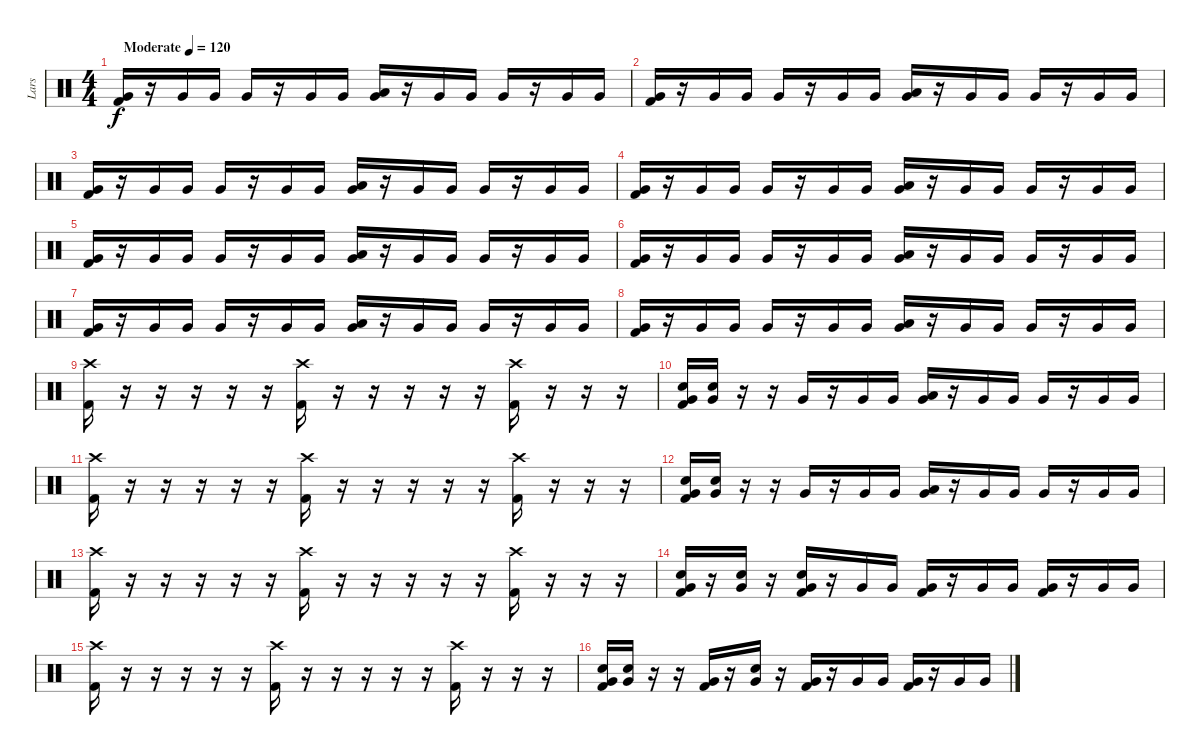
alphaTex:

\track ("Lars" "Lars") {instrument percussion}
\staff {score}
\articulation defaults
\ts (4 4)
\tempo (120 "Moderate")
\clef neutral
\ks c
("Very Low Tom (hit)" "Kick (hit) 2").16{dy f} r.16 "Very Low Tom (hit)".16 "Very Low Tom (hit)".16 "Very Low Tom (hit)".16 r.16 "Very Low Tom (hit)".16 "Very Low Tom (hit)".16 ("Low Tom (hit)" "Very Low Tom (hit)").16 r.16 "Very Low Tom (hit)".16 "Very Low Tom (hit)".16 "Very Low Tom (hit)".16 r.16 "Very Low Tom (hit)".16 "Very Low Tom (hit)".16 |
("Very Low Tom (hit)" "Kick (hit) 2").16 r.16 "Very Low Tom (hit)".16 "Very Low Tom (hit)".16 "Very Low Tom (hit)".16 r.16 "Very Low Tom (hit)".16 "Very Low Tom (hit)".16 ("Low Tom (hit)" "Very Low Tom (hit)").16 r.16 "Very Low Tom (hit)".16 "Very Low Tom (hit)".16 "Very Low Tom (hit)".16 r.16 "Very Low Tom (hit)".16 "Very Low Tom (hit)".16 |
("Very Low Tom (hit)" "Kick (hit) 2").16 r.16 "Very Low Tom (hit)".16 "Very Low Tom (hit)".16 "Very Low Tom (hit)".16 r.16 "Very Low Tom (hit)".16 "Very Low Tom (hit)".16 ("Low Tom (hit)" "Very Low Tom (hit)").16 r.16 "Very Low Tom (hit)".16 "Very Low Tom (hit)".16 "Very Low Tom (hit)".16 r.16 "Very Low Tom (hit)".16 "Very Low Tom (hit)".16 |
("Very Low Tom (hit)" "Kick (hit) 2").16 r.16 "Very Low Tom (hit)".16 "Very Low Tom (hit)".16 "Very Low Tom (hit)".16 r.16 "Very Low Tom (hit)".16 "Very Low Tom (hit)".16 ("Low Tom (hit)" "Very Low Tom (hit)").16 r.16 "Very Low Tom (hit)".16 "Very Low Tom (hit)".16 "Very Low Tom (hit)".16 r.16 "Very Low Tom (hit)".16 "Very Low Tom (hit)".16 |
("Very Low Tom (hit)" "Kick (hit) 2").16 r.16 "Very Low Tom (hit)".16 "Very Low Tom (hit)".16 "Very Low Tom (hit)".16 r.16 "Very Low Tom (hit)".16 "Very Low Tom (hit)".16 ("Low Tom (hit)" "Very Low Tom (hit)").16 r.16 "Very Low Tom (hit)".16 "Very Low Tom (hit)".16 "Very Low Tom (hit)".16 r.16 "Very Low Tom (hit)".16 "Very Low Tom (hit)".16 |
("Very Low Tom (hit)" "Kick (hit) 2").16 r.16 "Very Low Tom (hit)".16 "Very Low Tom (hit)".16 "Very Low Tom (hit)".16 r.16 "Very Low Tom (hit)".16 "Very Low Tom (hit)".16 ("Low Tom (hit)" "Very Low Tom (hit)").16 r.16 "Very Low Tom (hit)".16 "Very Low Tom (hit)".16 "Very Low Tom (hit)".16 r.16 "Very Low Tom (hit)".16 "Very Low Tom (hit)".16 |
("Very Low Tom (hit)" "Kick (hit) 2").16 r.16 "Very Low Tom (hit)".16 "Very Low Tom (hit)".16 "Very Low Tom (hit)".16 r.16 "Very Low Tom (hit)".16 "Very Low Tom (hit)".16 ("Low Tom (hit)" "Very Low Tom (hit)").16 r.16 "Very Low Tom (hit)".16 "Very Low Tom (hit)".16 "Very Low Tom (hit)".16 r.16 "Very Low Tom (hit)".16 "Very Low Tom (hit)".16 |
("Very Low Tom (hit)" "Kick (hit) 2").16 r.16 "Very Low Tom (hit)".16 "Very Low Tom (hit)".16 "Very Low Tom (hit)".16 r.16 "Very Low Tom (hit)".16 "Very Low Tom (hit)".16 ("Low Tom (hit)" "Very Low Tom (hit)").16 r.16 "Very Low Tom (hit)".16 "Very Low Tom (hit)".16 "Very Low Tom (hit)".16 r.16 "Very Low Tom (hit)".16 "Very Low Tom (hit)".16 |
("Crash high (hit)" "Kick (hit) 2").16 r.16 r.16 r.16 r.16 r.16 ("Crash high (hit)" "Kick (hit) 2").16 r.16 r.16 r.16 r.16 r.16 ("Crash high (hit)" "Kick (hit) 2").16 r.16 r.16 r.16 |
("Electric Snare (hit)" "Very Low Tom (hit)" "Kick (hit) 2").16 ("Electric Snare (hit)" "Very Low Tom (hit)").16 r.16 r.16 "Very Low Tom (hit)".16 r.16 "Very Low Tom (hit)".16 "Very Low Tom (hit)".16 ("Low Tom (hit)" "Very Low Tom (hit)").16 r.16 "Very Low Tom (hit)".16 "Very Low Tom (hit)".16 "Very Low Tom (hit)".16 r.16 "Very Low Tom (hit)".16 "Very Low Tom (hit)".16 |
("Crash high (hit)" "Kick (hit) 2").16 r.16 r.16 r.16 r.16 r.16 ("Crash high (hit)" "Kick (hit) 2").16 r.16 r.16 r.16 r.16 r.16 ("Crash high (hit)" "Kick (hit) 2").16 r.16 r.16 r.16 |
("Electric Snare (hit)" "Very Low Tom (hit)" "Kick (hit) 2").16 ("Electric Snare (hit)" "Very Low Tom (hit)").16 r.16 r.16 "Very Low Tom (hit)".16 r.16 "Very Low Tom (hit)".16 "Very Low Tom (hit)".16 ("Low Tom (hit)" "Very Low Tom (hit)").16 r.16 "Very Low Tom (hit)".16 "Very Low Tom (hit)".16 "Very Low Tom (hit)".16 r.16 "Very Low Tom (hit)".16 "Very Low Tom (hit)".16 |
("Crash high (hit)" "Kick (hit) 2").16 r.16 r.16 r.16 r.16 r.16 ("Crash high (hit)" "Kick (hit) 2").16 r.16 r.16 r.16 r.16 r.16 ("Crash high (hit)" "Kick (hit) 2").16 r.16 r.16 r.16 |
("Electric Snare (hit)" "Very Low Tom (hit)" "Kick (hit) 2").16 r.16 ("Electric Snare (hit)" "Very Low Tom (hit)").16 r.16 ("Electric Snare (hit)" "Very Low Tom (hit)" "Kick (hit) 2").16 r.16 "Very Low Tom (hit)".16 "Very Low Tom (hit)".16 ("Very Low Tom (hit)" "Kick (hit) 2").16 r.16 "Very Low Tom (hit)".16 "Very Low Tom (hit)".16 ("Very Low Tom (hit)" "Kick (hit) 2").16 r.16 "Very Low Tom (hit)".16 "Very Low Tom (hit)".16 |
("Crash high (hit)" "Kick (hit) 2").16 r.16 r.16 r.16 r.16 r.16 ("Crash high (hit)" "Kick (hit) 2").16 r.16 r.16 r.16 r.16 r.16 ("Crash high (hit)" "Kick (hit) 2").16 r.16 r.16 r.16 |
("Electric Snare (hit)" "Very Low Tom (hit)" "Kick (hit) 2").16 ("Electric Snare (hit)" "Very Low Tom (hit)").16 r.16 r.16 ("Very Low Tom (hit)" "Kick (hit) 2").16 r.16 ("Electric Snare (hit)" "Very Low Tom (hit)").16 r.16 ("Very Low Tom (hit)" "Kick (hit) 2").16 r.16 "Very Low Tom (hit)".16 "Very Low Tom (hit)".16 ("Very Low Tom (hit)" "Kick (hit) 2").16 r.16 "Very Low Tom (hit)".16 "Very Low Tom (hit)".16
